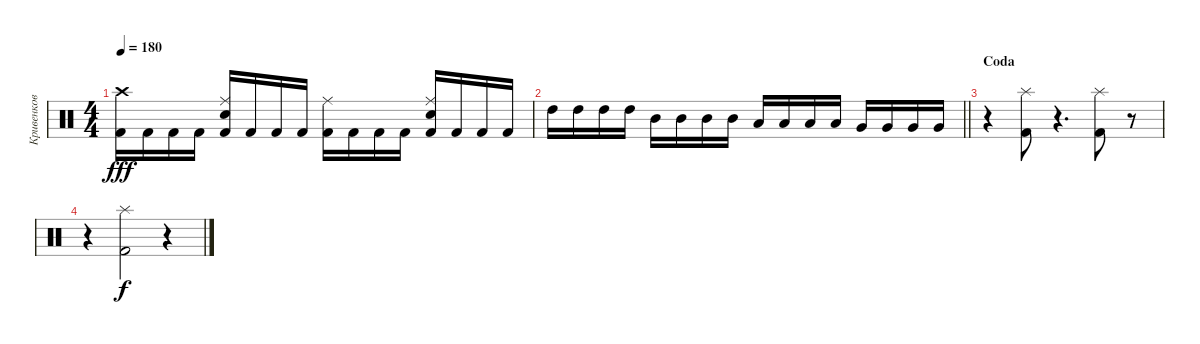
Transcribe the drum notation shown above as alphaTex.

\track ("Кривенков" "Кривенков") {instrument percussion}
\staff {score}
\articulation defaults
\ts (4 4)
\tempo 180
\clef neutral
\ks c
("Kick (hit) 2" "Crash high (hit)").16{dy fff} "Kick (hit) 2".16 "Kick (hit) 2".16 "Kick (hit) 2".16 ("Ride (middle)" "Snare (hit) 2" "Kick (hit) 2").16 "Kick (hit) 2".16 "Kick (hit) 2".16 "Kick (hit) 2".16 ("Kick (hit) 2" "Ride (middle)").16 "Kick (hit) 2".16 "Kick (hit) 2".16 "Kick (hit) 2".16 ("Ride (middle)" "Kick (hit) 2" "Snare (hit) 2").16 "Kick (hit) 2".16 "Kick (hit) 2".16 "Kick (hit) 2".16 |
\barLineRight lightlight "High Tom (hit)".16 "High Tom (hit)".16 "High Tom (hit)".16 "High Tom (hit)".16 "Mid Tom (hit)".16 "Mid Tom (hit)".16 "Mid Tom (hit)".16 "Mid Tom (hit)".16 "Low Tom (hit)".16 "Low Tom (hit)".16 "Low Tom (hit)".16 "Low Tom (hit)".16 "Very Low Tom (hit)".16 "Very Low Tom (hit)".16 "Very Low Tom (hit)".16 "Very Low Tom (hit)".16
|
\section ("" "Coda")
r.4 ("Kick (hit) 2" "Splash (hit)").8 r.4{d} ("Splash (hit)" "Kick (hit) 2").8 r.8 |
r.4 ("Kick (hit) 2" "Splash (hit)").2{dy f} r.4
